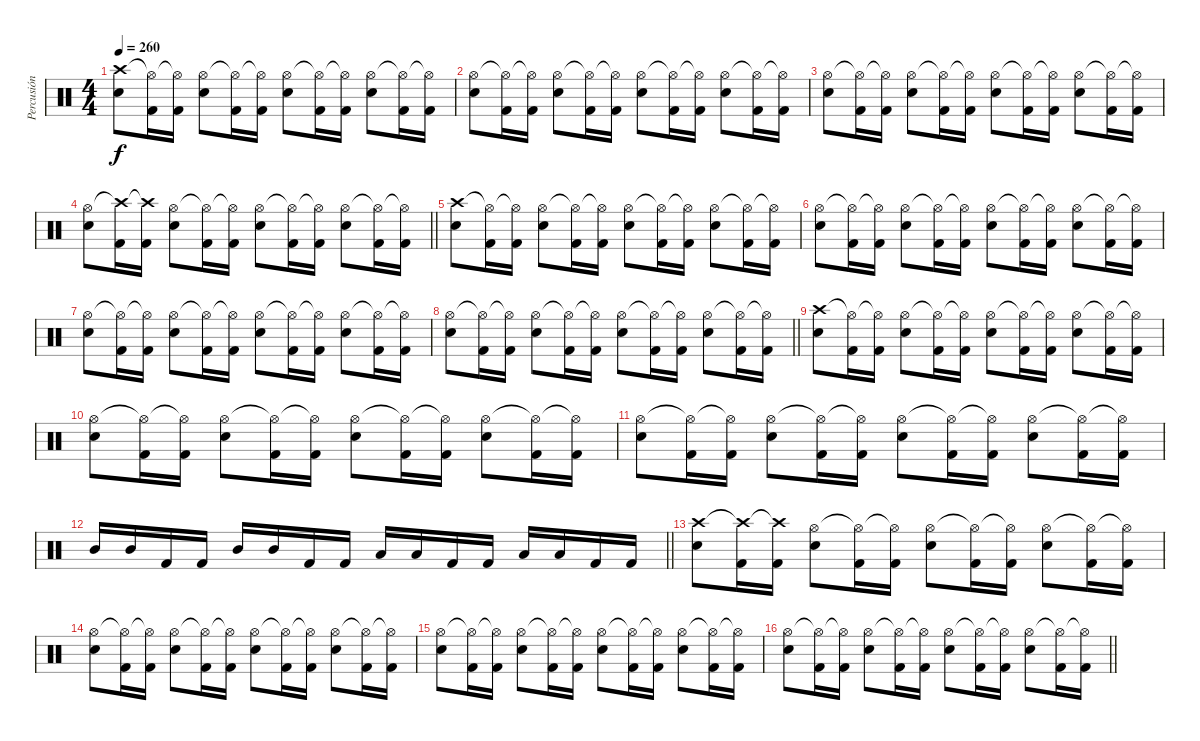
\track ("Percusión" "Percusión") {instrument percussion}
\staff {score}
\articulation defaults
\ts (4 4)
\tempo 260
\clef neutral
\ks c
("Snare (hit) 2" "Crash high (hit)").8{dy f} ("Kick (hit) 2" "Hi-Hat (open)"{t}).16 ("Kick (hit) 2" "Hi-Hat (open)"{t}).16 ("Snare (hit) 2" "Hi-Hat (open)").8 ("Kick (hit) 2" "Hi-Hat (open)"{t}).16 ("Kick (hit) 2" "Hi-Hat (open)"{t}).16 ("Snare (hit) 2" "Hi-Hat (open)").8 ("Kick (hit) 2" "Hi-Hat (open)"{t}).16 ("Kick (hit) 2" "Hi-Hat (open)"{t}).16 ("Snare (hit) 2" "Hi-Hat (open)").8 ("Kick (hit) 2" "Hi-Hat (open)"{t}).16 ("Kick (hit) 2" "Hi-Hat (open)"{t}).16 |
("Snare (hit) 2" "Hi-Hat (open)").8 ("Kick (hit) 2" "Hi-Hat (open)"{t}).16 ("Kick (hit) 2" "Hi-Hat (open)"{t}).16 ("Snare (hit) 2" "Hi-Hat (open)").8 ("Kick (hit) 2" "Hi-Hat (open)"{t}).16 ("Kick (hit) 2" "Hi-Hat (open)"{t}).16 ("Snare (hit) 2" "Hi-Hat (open)").8 ("Kick (hit) 2" "Hi-Hat (open)"{t}).16 ("Kick (hit) 2" "Hi-Hat (open)"{t}).16 ("Snare (hit) 2" "Hi-Hat (open)").8 ("Kick (hit) 2" "Hi-Hat (open)"{t}).16 ("Kick (hit) 2" "Hi-Hat (open)"{t}).16 |
("Snare (hit) 2" "Hi-Hat (open)").8 ("Kick (hit) 2" "Hi-Hat (open)"{t}).16 ("Kick (hit) 2" "Hi-Hat (open)"{t}).16 ("Snare (hit) 2" "Hi-Hat (open)").8 ("Kick (hit) 2" "Hi-Hat (open)"{t}).16 ("Kick (hit) 2" "Hi-Hat (open)"{t}).16 ("Snare (hit) 2" "Hi-Hat (open)").8 ("Kick (hit) 2" "Hi-Hat (open)"{t}).16 ("Kick (hit) 2" "Hi-Hat (open)"{t}).16 ("Snare (hit) 2" "Hi-Hat (open)").8 ("Kick (hit) 2" "Hi-Hat (open)"{t}).16 ("Kick (hit) 2" "Hi-Hat (open)"{t}).16 |
\barLineRight lightlight
("Snare (hit) 2" "Hi-Hat (open)").8 ("Kick (hit) 2" "Crash high (hit)"{t}).16 ("Kick (hit) 2" "Crash high (hit)"{t}).16 ("Snare (hit) 2" "Hi-Hat (open)").8 ("Kick (hit) 2" "Hi-Hat (open)"{t}).16 ("Kick (hit) 2" "Hi-Hat (open)"{t}).16 ("Snare (hit) 2" "Hi-Hat (open)").8 ("Kick (hit) 2" "Hi-Hat (open)"{t}).16 ("Kick (hit) 2" "Hi-Hat (open)"{t}).16 ("Snare (hit) 2" "Hi-Hat (open)").8 ("Kick (hit) 2" "Hi-Hat (open)"{t}).16 ("Kick (hit) 2" "Hi-Hat (open)"{t}).16 |
("Snare (hit) 2" "Crash high (hit)").8 ("Kick (hit) 2" "Hi-Hat (open)"{t}).16 ("Kick (hit) 2" "Hi-Hat (open)"{t}).16 ("Snare (hit) 2" "Hi-Hat (open)").8 ("Kick (hit) 2" "Hi-Hat (open)"{t}).16 ("Kick (hit) 2" "Hi-Hat (open)"{t}).16 ("Snare (hit) 2" "Hi-Hat (open)").8 ("Kick (hit) 2" "Hi-Hat (open)"{t}).16 ("Kick (hit) 2" "Hi-Hat (open)"{t}).16 ("Snare (hit) 2" "Hi-Hat (open)").8 ("Kick (hit) 2" "Hi-Hat (open)"{t}).16 ("Kick (hit) 2" "Hi-Hat (open)"{t}).16 |
("Snare (hit) 2" "Hi-Hat (open)").8 ("Kick (hit) 2" "Hi-Hat (open)"{t}).16 ("Kick (hit) 2" "Hi-Hat (open)"{t}).16 ("Snare (hit) 2" "Hi-Hat (open)").8 ("Kick (hit) 2" "Hi-Hat (open)"{t}).16 ("Kick (hit) 2" "Hi-Hat (open)"{t}).16 ("Snare (hit) 2" "Hi-Hat (open)").8 ("Kick (hit) 2" "Hi-Hat (open)"{t}).16 ("Kick (hit) 2" "Hi-Hat (open)"{t}).16 ("Snare (hit) 2" "Hi-Hat (open)").8 ("Kick (hit) 2" "Hi-Hat (open)"{t}).16 ("Kick (hit) 2" "Hi-Hat (open)"{t}).16 |
("Snare (hit) 2" "Hi-Hat (open)").8 ("Kick (hit) 2" "Hi-Hat (open)"{t}).16 ("Kick (hit) 2" "Hi-Hat (open)"{t}).16 ("Snare (hit) 2" "Hi-Hat (open)").8 ("Kick (hit) 2" "Hi-Hat (open)"{t}).16 ("Kick (hit) 2" "Hi-Hat (open)"{t}).16 ("Snare (hit) 2" "Hi-Hat (open)").8 ("Kick (hit) 2" "Hi-Hat (open)"{t}).16 ("Kick (hit) 2" "Hi-Hat (open)"{t}).16 ("Snare (hit) 2" "Hi-Hat (open)").8 ("Kick (hit) 2" "Hi-Hat (open)"{t}).16 ("Kick (hit) 2" "Hi-Hat (open)"{t}).16 |
\barLineRight lightlight
("Snare (hit) 2" "Hi-Hat (open)").8 ("Kick (hit) 2" "Hi-Hat (open)"{t}).16 ("Kick (hit) 2" "Hi-Hat (open)"{t}).16 ("Snare (hit) 2" "Hi-Hat (open)").8 ("Kick (hit) 2" "Hi-Hat (open)"{t}).16 ("Kick (hit) 2" "Hi-Hat (open)"{t}).16 ("Snare (hit) 2" "Hi-Hat (open)").8 ("Kick (hit) 2" "Hi-Hat (open)"{t}).16 ("Kick (hit) 2" "Hi-Hat (open)"{t}).16 ("Snare (hit) 2" "Hi-Hat (open)").8 ("Kick (hit) 2" "Hi-Hat (open)"{t}).16 ("Kick (hit) 2" "Hi-Hat (open)"{t}).16 |
("Snare (hit) 2" "Crash high (hit)").8 ("Kick (hit) 2" "Hi-Hat (open)"{t}).16 ("Kick (hit) 2" "Hi-Hat (open)"{t}).16 ("Snare (hit) 2" "Hi-Hat (open)").8 ("Kick (hit) 2" "Hi-Hat (open)"{t}).16 ("Kick (hit) 2" "Hi-Hat (open)"{t}).16 ("Snare (hit) 2" "Hi-Hat (open)").8 ("Kick (hit) 2" "Hi-Hat (open)"{t}).16 ("Kick (hit) 2" "Hi-Hat (open)"{t}).16 ("Snare (hit) 2" "Hi-Hat (open)").8 ("Kick (hit) 2" "Hi-Hat (open)"{t}).16 ("Kick (hit) 2" "Hi-Hat (open)"{t}).16 |
("Snare (hit) 2" "Hi-Hat (open)").8 ("Kick (hit) 2" "Hi-Hat (open)"{t}).16 ("Kick (hit) 2" "Hi-Hat (open)"{t}).16 ("Snare (hit) 2" "Hi-Hat (open)").8 ("Kick (hit) 2" "Hi-Hat (open)"{t}).16 ("Kick (hit) 2" "Hi-Hat (open)"{t}).16 ("Snare (hit) 2" "Hi-Hat (open)").8 ("Kick (hit) 2" "Hi-Hat (open)"{t}).16 ("Kick (hit) 2" "Hi-Hat (open)"{t}).16 ("Snare (hit) 2" "Hi-Hat (open)").8 ("Kick (hit) 2" "Hi-Hat (open)"{t}).16 ("Kick (hit) 2" "Hi-Hat (open)"{t}).16 |
("Snare (hit) 2" "Hi-Hat (open)").8 ("Kick (hit) 2" "Hi-Hat (open)"{t}).16 ("Kick (hit) 2" "Hi-Hat (open)"{t}).16 ("Snare (hit) 2" "Hi-Hat (open)").8 ("Kick (hit) 2" "Hi-Hat (open)"{t}).16 ("Kick (hit) 2" "Hi-Hat (open)"{t}).16 ("Snare (hit) 2" "Hi-Hat (open)").8 ("Kick (hit) 2" "Hi-Hat (open)"{t}).16 ("Kick (hit) 2" "Hi-Hat (open)"{t}).16 ("Snare (hit) 2" "Hi-Hat (open)").8 ("Kick (hit) 2" "Hi-Hat (open)"{t}).16 ("Kick (hit) 2" "Hi-Hat (open)"{t}).16 |
\barLineRight lightlight "Mid Tom (hit)".16 "Mid Tom (hit)".16 "Kick (hit) 2".16 "Kick (hit) 2".16 "Mid Tom (hit)".16 "Mid Tom (hit)".16 "Kick (hit) 2".16 "Kick (hit) 2".16 "Low Tom (hit)".16 "Low Tom (hit)".16 "Kick (hit) 2".16 "Kick (hit) 2".16 "Low Tom (hit)".16 "Low Tom (hit)".16 "Kick (hit) 2".16 "Kick (hit) 2".16
|
("Snare (hit) 2" "Crash high (hit)").8 ("Kick (hit) 2" "Crash high (hit)"{t}).16 ("Kick (hit) 2" "Crash high (hit)"{t}).16 ("Snare (hit) 2" "Hi-Hat (open)").8 ("Kick (hit) 2" "Hi-Hat (open)"{t}).16 ("Kick (hit) 2" "Hi-Hat (open)"{t}).16 ("Snare (hit) 2" "Hi-Hat (open)").8 ("Kick (hit) 2" "Hi-Hat (open)"{t}).16 ("Kick (hit) 2" "Hi-Hat (open)"{t}).16 ("Snare (hit) 2" "Hi-Hat (open)").8 ("Kick (hit) 2" "Hi-Hat (open)"{t}).16 ("Kick (hit) 2" "Hi-Hat (open)"{t}).16 |
("Snare (hit) 2" "Hi-Hat (open)").8 ("Kick (hit) 2" "Hi-Hat (open)"{t}).16 ("Kick (hit) 2" "Hi-Hat (open)"{t}).16 ("Snare (hit) 2" "Hi-Hat (open)").8 ("Kick (hit) 2" "Hi-Hat (open)"{t}).16 ("Kick (hit) 2" "Hi-Hat (open)"{t}).16 ("Snare (hit) 2" "Hi-Hat (open)").8 ("Kick (hit) 2" "Hi-Hat (open)"{t}).16 ("Kick (hit) 2" "Hi-Hat (open)"{t}).16 ("Snare (hit) 2" "Hi-Hat (open)").8 ("Kick (hit) 2" "Hi-Hat (open)"{t}).16 ("Kick (hit) 2" "Hi-Hat (open)"{t}).16 |
("Snare (hit) 2" "Hi-Hat (open)").8 ("Kick (hit) 2" "Hi-Hat (open)"{t}).16 ("Kick (hit) 2" "Hi-Hat (open)"{t}).16 ("Snare (hit) 2" "Hi-Hat (open)").8 ("Kick (hit) 2" "Hi-Hat (open)"{t}).16 ("Kick (hit) 2" "Hi-Hat (open)"{t}).16 ("Snare (hit) 2" "Hi-Hat (open)").8 ("Kick (hit) 2" "Hi-Hat (open)"{t}).16 ("Kick (hit) 2" "Hi-Hat (open)"{t}).16 ("Snare (hit) 2" "Hi-Hat (open)").8 ("Kick (hit) 2" "Hi-Hat (open)"{t}).16 ("Kick (hit) 2" "Hi-Hat (open)"{t}).16 |
\barLineRight lightlight
("Snare (hit) 2" "Hi-Hat (open)").8 ("Kick (hit) 2" "Hi-Hat (open)"{t}).16 ("Kick (hit) 2" "Hi-Hat (open)"{t}).16 ("Snare (hit) 2" "Hi-Hat (open)").8 ("Kick (hit) 2" "Hi-Hat (open)"{t}).16 ("Kick (hit) 2" "Hi-Hat (open)"{t}).16 ("Snare (hit) 2" "Hi-Hat (open)").8 ("Kick (hit) 2" "Hi-Hat (open)"{t}).16 ("Kick (hit) 2" "Hi-Hat (open)"{t}).16 ("Snare (hit) 2" "Hi-Hat (open)").8 ("Kick (hit) 2" "Hi-Hat (open)"{t}).16 ("Kick (hit) 2" "Hi-Hat (open)"{t}).16
